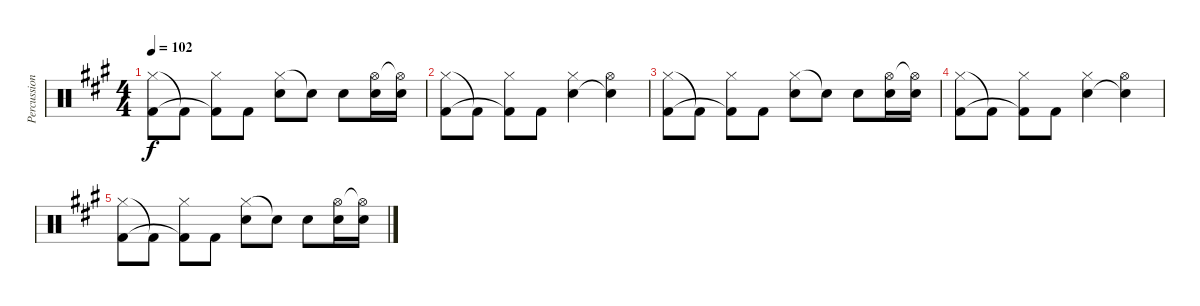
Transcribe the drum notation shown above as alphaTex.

\track ("Percussion" "Percussion") {instrument percussion}
\staff {score}
\articulation defaults
\ts (4 4)
\tempo 102
\clef neutral
\ks a
("Hi-Hat (closed)" "Kick (hit) 2").8{dy f} "Kick (hit) 2"{t}.8 ("Hi-Hat (closed)" "Kick (hit) 2"{t}).8 "Kick (hit) 2".8 ("Hi-Hat (closed)" "Electric Snare (hit)").8 "Electric Snare (hit)"{t}.8 "Electric Snare (hit)".8 ("Hi-Hat (open)" "Electric Snare (hit)").16 ("Hi-Hat (open)"{t} "Electric Snare (hit)").16 |
("Hi-Hat (closed)" "Kick (hit) 2").8 "Kick (hit) 2"{t}.8 ("Hi-Hat (closed)" "Kick (hit) 2"{t}).8 "Kick (hit) 2".8 ("Hi-Hat (closed)" "Electric Snare (hit)").4 ("Hi-Hat (open)" "Electric Snare (hit)"{t}).4 |
("Hi-Hat (closed)" "Kick (hit) 2").8 "Kick (hit) 2"{t}.8 ("Hi-Hat (closed)" "Kick (hit) 2"{t}).8 "Kick (hit) 2".8 ("Hi-Hat (closed)" "Electric Snare (hit)").8 "Electric Snare (hit)"{t}.8 "Electric Snare (hit)".8 ("Hi-Hat (open)" "Electric Snare (hit)").16 ("Hi-Hat (open)"{t} "Electric Snare (hit)").16 |
("Hi-Hat (closed)" "Kick (hit) 2").8 "Kick (hit) 2"{t}.8 ("Hi-Hat (closed)" "Kick (hit) 2"{t}).8 "Kick (hit) 2".8 ("Hi-Hat (closed)" "Electric Snare (hit)").4 ("Hi-Hat (open)" "Electric Snare (hit)"{t}).4 |
("Hi-Hat (closed)" "Kick (hit) 2").8 "Kick (hit) 2"{t}.8 ("Hi-Hat (closed)" "Kick (hit) 2"{t}).8 "Kick (hit) 2".8 ("Hi-Hat (closed)" "Electric Snare (hit)").8 "Electric Snare (hit)"{t}.8 "Electric Snare (hit)".8 ("Hi-Hat (open)" "Electric Snare (hit)").16 ("Hi-Hat (open)"{t} "Electric Snare (hit)").16
